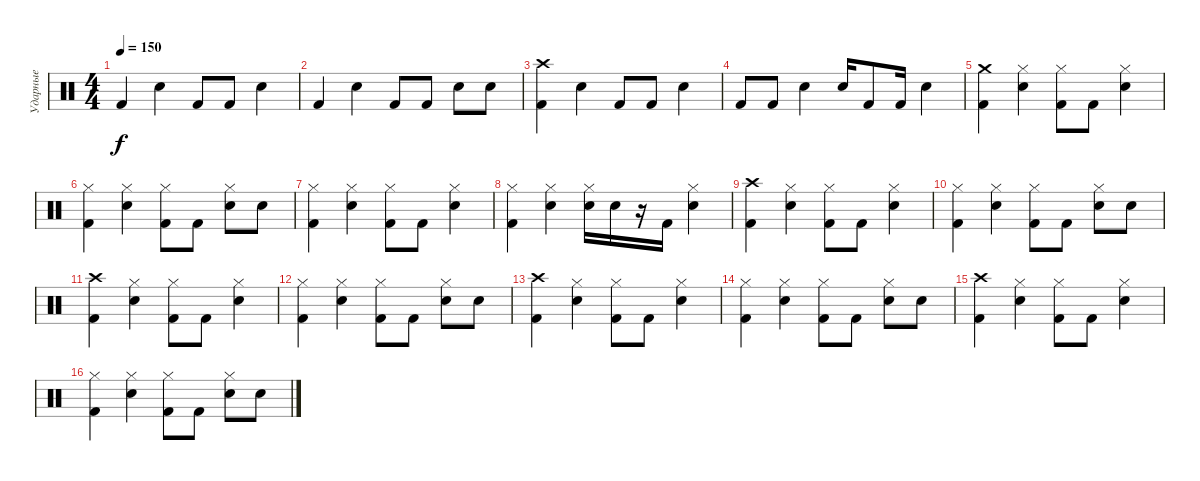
\track ("Ударные" "Ударные") {instrument percussion}
\staff {score}
\articulation defaults
\ts (4 4)
\tempo 150
\clef neutral
\ks c "Kick (hit) 2".4{dy f} "Electric Snare (hit)".4 "Kick (hit) 2".8 "Kick (hit) 2".8 "Electric Snare (hit)".4
|
"Kick (hit) 2".4 "Electric Snare (hit)".4 "Kick (hit) 2".8 "Kick (hit) 2".8 "Electric Snare (hit)".8 "Electric Snare (hit)".8 |
("Kick (hit) 2" "Crash high (hit)").4 "Electric Snare (hit)".4 "Kick (hit) 2".8 "Kick (hit) 2".8 "Electric Snare (hit)".4 |
"Kick (hit) 2".8 "Kick (hit) 2".8 "Electric Snare (hit)".4 "Electric Snare (hit)".16 "Kick (hit) 2".8 "Kick (hit) 2".16 "Electric Snare (hit)".4 |
("Kick (hit) 2" "Crash medium (hit)").4 ("Hi-Hat (closed)" "Electric Snare (hit)").4 ("Hi-Hat (closed)" "Kick (hit) 2").8 "Kick (hit) 2".8 ("Hi-Hat (closed)" "Electric Snare (hit)").4 |
("Hi-Hat (closed)" "Kick (hit) 2").4 ("Hi-Hat (closed)" "Electric Snare (hit)").4 ("Hi-Hat (closed)" "Kick (hit) 2").8 "Kick (hit) 2".8 ("Hi-Hat (closed)" "Electric Snare (hit)").8 "Electric Snare (hit)".8 |
("Hi-Hat (closed)" "Kick (hit) 2").4 ("Hi-Hat (closed)" "Electric Snare (hit)").4 ("Hi-Hat (closed)" "Kick (hit) 2").8 "Kick (hit) 2".8 ("Hi-Hat (closed)" "Electric Snare (hit)").4 |
("Hi-Hat (closed)" "Kick (hit) 2").4 ("Hi-Hat (closed)" "Electric Snare (hit)").4 ("Hi-Hat (closed)" "Electric Snare (hit)").16 "Electric Snare (hit)".16 r.16 "Kick (hit) 2".16 ("Hi-Hat (closed)" "Electric Snare (hit)").4 |
("Crash high (hit)" "Kick (hit) 2").4 ("Hi-Hat (closed)" "Electric Snare (hit)").4 ("Hi-Hat (closed)" "Kick (hit) 2").8 "Kick (hit) 2".8 ("Hi-Hat (closed)" "Electric Snare (hit)").4 |
("Hi-Hat (closed)" "Kick (hit) 2").4 ("Hi-Hat (closed)" "Electric Snare (hit)").4 ("Hi-Hat (closed)" "Kick (hit) 2").8 "Kick (hit) 2".8 ("Hi-Hat (closed)" "Electric Snare (hit)").8 "Electric Snare (hit)".8 |
("Crash high (hit)" "Kick (hit) 2").4 ("Hi-Hat (closed)" "Electric Snare (hit)").4 ("Hi-Hat (closed)" "Kick (hit) 2").8 "Kick (hit) 2".8 ("Hi-Hat (closed)" "Electric Snare (hit)").4 |
("Hi-Hat (closed)" "Kick (hit) 2").4 ("Hi-Hat (closed)" "Electric Snare (hit)").4 ("Hi-Hat (closed)" "Kick (hit) 2").8 "Kick (hit) 2".8 ("Hi-Hat (closed)" "Electric Snare (hit)").8 "Electric Snare (hit)".8 |
("Crash high (hit)" "Kick (hit) 2").4 ("Hi-Hat (closed)" "Electric Snare (hit)").4 ("Hi-Hat (closed)" "Kick (hit) 2").8 "Kick (hit) 2".8 ("Hi-Hat (closed)" "Electric Snare (hit)").4 |
("Hi-Hat (closed)" "Kick (hit) 2").4 ("Hi-Hat (closed)" "Electric Snare (hit)").4 ("Hi-Hat (closed)" "Kick (hit) 2").8 "Kick (hit) 2".8 ("Hi-Hat (closed)" "Electric Snare (hit)").8 "Electric Snare (hit)".8 |
("Crash high (hit)" "Kick (hit) 2").4 ("Hi-Hat (closed)" "Electric Snare (hit)").4 ("Hi-Hat (closed)" "Kick (hit) 2").8 "Kick (hit) 2".8 ("Hi-Hat (closed)" "Electric Snare (hit)").4 |
("Hi-Hat (closed)" "Kick (hit) 2").4 ("Hi-Hat (closed)" "Electric Snare (hit)").4 ("Hi-Hat (closed)" "Kick (hit) 2").8 "Kick (hit) 2".8 ("Hi-Hat (closed)" "Electric Snare (hit)").8 "Electric Snare (hit)".8
